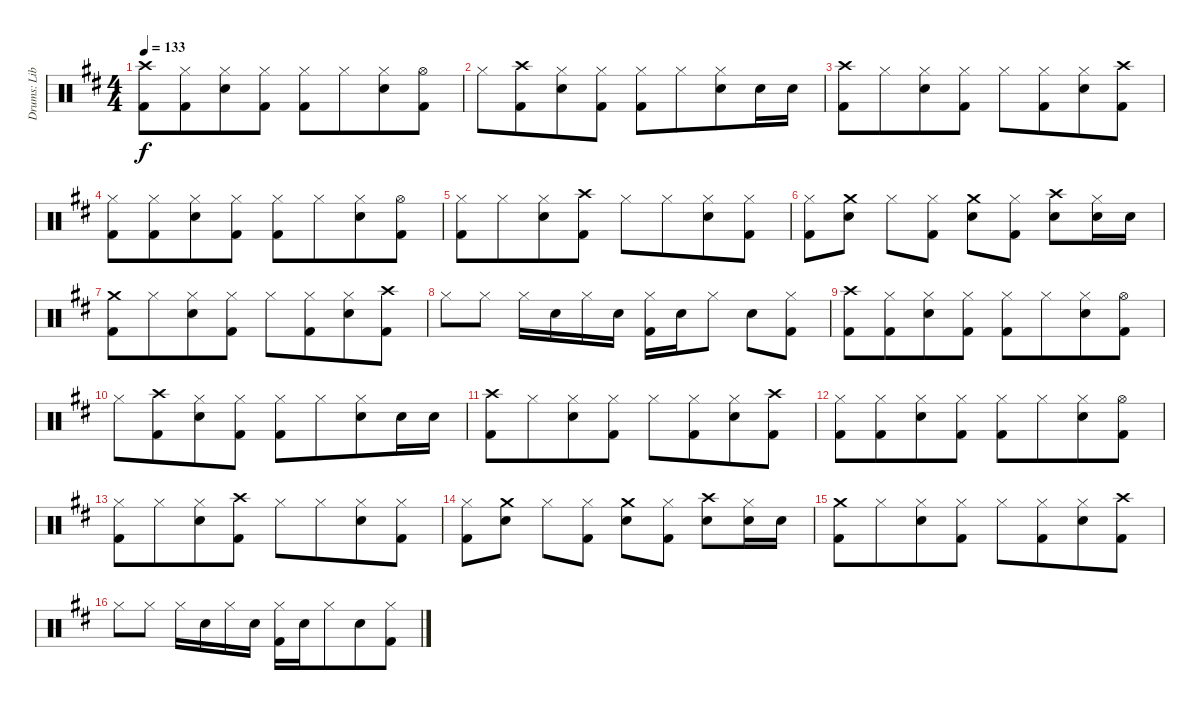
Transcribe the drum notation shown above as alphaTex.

\track ("Drums: Liberty" "Drums: Lib") {instrument percussion}
\staff {score}
\articulation defaults
\ts (4 4)
\tempo 133
\clef neutral
\ks d
("Crash high (hit)" "Kick (hit) 2").8{dy f} ("Hi-Hat (closed)" "Kick (hit) 2").8{beam merge} ("Hi-Hat (closed)" "Electric Snare (hit)").8 ("Hi-Hat (closed)" "Kick (hit) 2").8 ("Hi-Hat (closed)" "Kick (hit) 2").8 "Hi-Hat (closed)".8{beam merge} ("Hi-Hat (closed)" "Electric Snare (hit)").8 ("Hi-Hat (open)" "Kick (hit) 2").8 |
"Hi-Hat (closed)".8 ("Crash high (hit)" "Kick (hit) 2").8{beam merge} ("Hi-Hat (closed)" "Electric Snare (hit)").8 ("Hi-Hat (closed)" "Kick (hit) 2").8 ("Hi-Hat (closed)" "Kick (hit) 2").8 "Hi-Hat (closed)".8{beam merge} ("Hi-Hat (closed)" "Electric Snare (hit)").8 "Electric Snare (hit)".16 "Electric Snare (hit)".16 |
("Crash high (hit)" "Kick (hit) 2").8 "Hi-Hat (closed)".8{beam merge} ("Hi-Hat (closed)" "Electric Snare (hit)").8 ("Hi-Hat (closed)" "Kick (hit) 2").8 "Hi-Hat (closed)".8 ("Hi-Hat (closed)" "Kick (hit) 2").8{beam merge} ("Hi-Hat (closed)" "Electric Snare (hit)").8 ("Crash high (hit)" "Kick (hit) 2").8 |
("Hi-Hat (closed)" "Kick (hit) 2").8 ("Hi-Hat (closed)" "Kick (hit) 2").8{beam merge} ("Hi-Hat (closed)" "Electric Snare (hit)").8 ("Hi-Hat (closed)" "Kick (hit) 2").8 ("Hi-Hat (closed)" "Kick (hit) 2").8 "Hi-Hat (closed)".8{beam merge} ("Hi-Hat (closed)" "Electric Snare (hit)").8 ("Hi-Hat (open)" "Kick (hit) 2").8 |
("Hi-Hat (closed)" "Kick (hit) 2").8 "Hi-Hat (closed)".8{beam merge} ("Hi-Hat (closed)" "Electric Snare (hit)").8 ("Crash high (hit)" "Kick (hit) 2").8 "Hi-Hat (closed)".8 "Hi-Hat (closed)".8{beam merge} ("Hi-Hat (closed)" "Electric Snare (hit)").8 ("Hi-Hat (closed)" "Kick (hit) 2").8 |
("Hi-Hat (closed)" "Kick (hit) 2").8 ("Crash medium (hit)" "Electric Snare (hit)").8 "Hi-Hat (closed)".8 ("Kick (hit) 2" "Hi-Hat (closed)").8 ("Crash medium (hit)" "Electric Snare (hit)").8 ("Hi-Hat (closed)" "Kick (hit) 2").8 ("Electric Snare (hit)" "Crash high (hit)").8 ("Hi-Hat (closed)" "Electric Snare (hit)").16 "Electric Snare (hit)".16 |
("Crash medium (hit)" "Kick (hit) 2").8 "Hi-Hat (closed)".8{beam merge} ("Hi-Hat (closed)" "Electric Snare (hit)").8 ("Hi-Hat (closed)" "Kick (hit) 2").8 "Hi-Hat (closed)".8 ("Hi-Hat (closed)" "Kick (hit) 2").8{beam merge} ("Hi-Hat (closed)" "Electric Snare (hit)").8 ("Crash high (hit)" "Kick (hit) 2").8 |
"Hi-Hat (closed)".8 "Hi-Hat (closed)".8 "Hi-Hat (closed)".16 "Electric Snare (hit)".16 "Hi-Hat (closed)".16 "Electric Snare (hit)".16 ("Hi-Hat (closed)" "Kick (hit) 2").16 "Electric Snare (hit)".16 "Hi-Hat (closed)".8 "Electric Snare (hit)".8 ("Hi-Hat (closed)" "Kick (hit) 2").8 |
("Crash high (hit)" "Kick (hit) 2").8 ("Hi-Hat (closed)" "Kick (hit) 2").8{beam merge} ("Hi-Hat (closed)" "Electric Snare (hit)").8 ("Hi-Hat (closed)" "Kick (hit) 2").8 ("Hi-Hat (closed)" "Kick (hit) 2").8 "Hi-Hat (closed)".8{beam merge} ("Hi-Hat (closed)" "Electric Snare (hit)").8 ("Hi-Hat (open)" "Kick (hit) 2").8 |
"Hi-Hat (closed)".8 ("Crash high (hit)" "Kick (hit) 2").8{beam merge} ("Hi-Hat (closed)" "Electric Snare (hit)").8 ("Hi-Hat (closed)" "Kick (hit) 2").8 ("Hi-Hat (closed)" "Kick (hit) 2").8 "Hi-Hat (closed)".8{beam merge} ("Hi-Hat (closed)" "Electric Snare (hit)").8 "Electric Snare (hit)".16 "Electric Snare (hit)".16 |
("Crash high (hit)" "Kick (hit) 2").8 "Hi-Hat (closed)".8{beam merge} ("Hi-Hat (closed)" "Electric Snare (hit)").8 ("Hi-Hat (closed)" "Kick (hit) 2").8 "Hi-Hat (closed)".8 ("Hi-Hat (closed)" "Kick (hit) 2").8{beam merge} ("Hi-Hat (closed)" "Electric Snare (hit)").8 ("Crash high (hit)" "Kick (hit) 2").8 |
("Hi-Hat (closed)" "Kick (hit) 2").8 ("Hi-Hat (closed)" "Kick (hit) 2").8{beam merge} ("Hi-Hat (closed)" "Electric Snare (hit)").8 ("Hi-Hat (closed)" "Kick (hit) 2").8 ("Hi-Hat (closed)" "Kick (hit) 2").8 "Hi-Hat (closed)".8{beam merge} ("Hi-Hat (closed)" "Electric Snare (hit)").8 ("Hi-Hat (open)" "Kick (hit) 2").8 |
("Hi-Hat (closed)" "Kick (hit) 2").8 "Hi-Hat (closed)".8{beam merge} ("Hi-Hat (closed)" "Electric Snare (hit)").8 ("Crash high (hit)" "Kick (hit) 2").8 "Hi-Hat (closed)".8 "Hi-Hat (closed)".8{beam merge} ("Hi-Hat (closed)" "Electric Snare (hit)").8 ("Hi-Hat (closed)" "Kick (hit) 2").8 |
("Hi-Hat (closed)" "Kick (hit) 2").8 ("Crash medium (hit)" "Electric Snare (hit)").8 "Hi-Hat (closed)".8 ("Kick (hit) 2" "Hi-Hat (closed)").8 ("Crash medium (hit)" "Electric Snare (hit)").8 ("Hi-Hat (closed)" "Kick (hit) 2").8 ("Electric Snare (hit)" "Crash high (hit)").8 ("Hi-Hat (closed)" "Electric Snare (hit)").16 "Electric Snare (hit)".16 |
("Crash medium (hit)" "Kick (hit) 2").8 "Hi-Hat (closed)".8{beam merge} ("Hi-Hat (closed)" "Electric Snare (hit)").8 ("Hi-Hat (closed)" "Kick (hit) 2").8 "Hi-Hat (closed)".8 ("Hi-Hat (closed)" "Kick (hit) 2").8{beam merge} ("Hi-Hat (closed)" "Electric Snare (hit)").8 ("Crash high (hit)" "Kick (hit) 2").8 |
"Hi-Hat (closed)".8 "Hi-Hat (closed)".8 "Hi-Hat (closed)".16 "Electric Snare (hit)".16 "Hi-Hat (closed)".16 "Electric Snare (hit)".16 ("Hi-Hat (closed)" "Kick (hit) 2").16 "Electric Snare (hit)".16 "Hi-Hat (closed)".8{beam merge} "Electric Snare (hit)".8 ("Hi-Hat (closed)" "Kick (hit) 2").8
